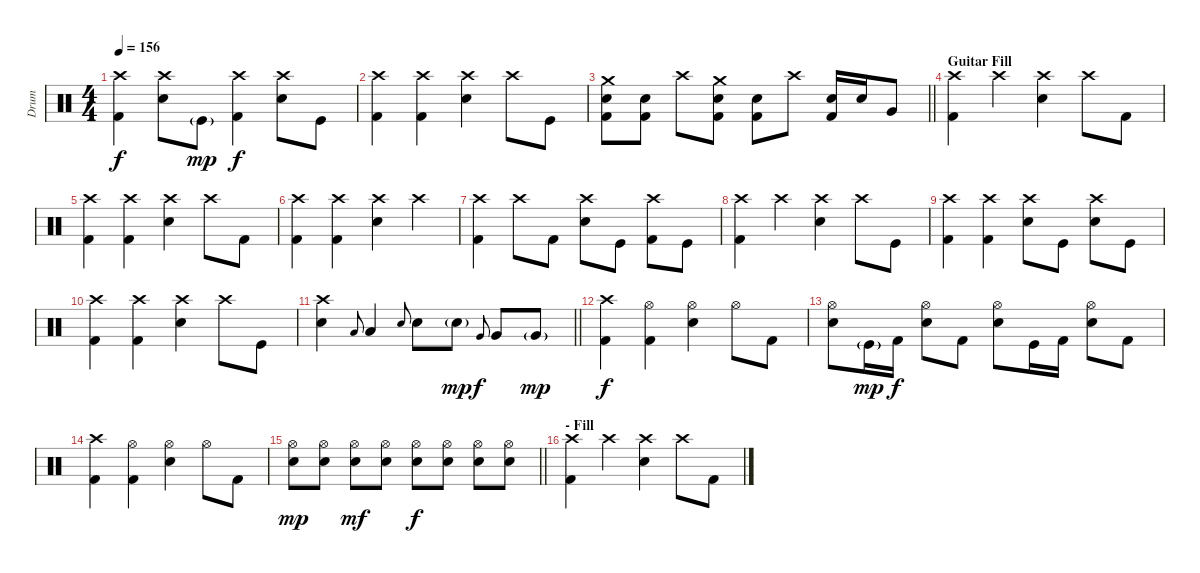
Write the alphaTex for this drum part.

\track ("Drum" "Drum") {instrument percussion}
\staff {score}
\articulation defaults
\ts (4 4)
\tempo 156
\clef neutral
\ks c
("Crash high (hit)" "Kick (hit) 2").4{dy f} ("Crash high (hit)" "Snare (hit) 2").8 "Kick (hit)"{g}.8{dy mp} ("Crash high (hit)" "Kick (hit) 2").4{dy f} ("Crash high (hit)" "Snare (hit) 2").8 "Kick (hit)".8 |
("Crash high (hit)" "Kick (hit) 2").4 ("Crash high (hit)" "Kick (hit) 2").4 ("Crash high (hit)" "Snare (hit) 2").4 "Crash high (hit)".8 "Kick (hit)".8 |
\barLineRight lightlight
("Crash medium (hit)" "Snare (hit) 2" "Kick (hit) 2").8 ("Snare (hit) 2" "Kick (hit) 2").8 "Crash high (hit)".8 ("Crash medium (hit)" "Snare (hit) 2" "Kick (hit) 2").8 ("Snare (hit) 2" "Kick (hit) 2").8 "Crash high (hit)".8 ("Snare (hit) 2" "Kick (hit) 2").16 "Snare (hit) 2".16 "Very Low Tom (hit)".8 |
\section ("" "Guitar Fill")
("Crash high (hit)" "Kick (hit) 2").4 "Crash high (hit)".4 ("Crash high (hit)" "Snare (hit) 2").4 "Crash high (hit)".8 "Kick (hit) 2".8 |
("Crash high (hit)" "Kick (hit) 2").4 ("Crash high (hit)" "Kick (hit) 2").4 ("Crash high (hit)" "Snare (hit) 2").4 "Crash high (hit)".8 "Kick (hit) 2".8 |
("Crash high (hit)" "Kick (hit) 2").4 ("Crash high (hit)" "Kick (hit) 2").4 ("Crash high (hit)" "Snare (hit) 2").4 "Crash high (hit)".4 |
("Crash high (hit)" "Kick (hit) 2").4 "Crash high (hit)".8 "Kick (hit) 2".8 ("Crash high (hit)" "Snare (hit) 2").8 "Kick (hit)".8 ("Crash high (hit)" "Kick (hit) 2").8 "Kick (hit)".8 |
("Crash high (hit)" "Kick (hit) 2").4 "Crash high (hit)".4 ("Crash high (hit)" "Snare (hit) 2").4 "Crash high (hit)".8 "Kick (hit)".8 |
("Crash high (hit)" "Kick (hit) 2").4 ("Crash high (hit)" "Kick (hit) 2").4 ("Crash high (hit)" "Snare (hit) 2").8 "Kick (hit)".8 ("Crash high (hit)" "Snare (hit) 2").8 "Kick (hit)".8 |
("Crash high (hit)" "Kick (hit) 2").4 ("Crash high (hit)" "Kick (hit) 2").4 ("Crash high (hit)" "Snare (hit) 2").4 "Crash high (hit)".8 "Kick (hit)".8 |
\barLineRight lightlight
("Crash high (hit)" "Snare (hit) 2").4 "Low Tom (hit)".8{gr onbeat} "Low Tom (hit)".4 "Snare (hit) 2".8{gr onbeat} "Snare (hit) 2".8 "Snare (hit) 2"{g}.8{dy mp} "Very Low Tom (hit)".8{gr onbeat dy f} "Very Low Tom (hit)".8 "Very Low Tom (hit)"{g}.8{dy mp} |
\section ("" "")
("Crash high (hit)" "Kick (hit) 2").4{dy f} ("Hi-Hat (open)" "Kick (hit) 2").4 ("Hi-Hat (open)" "Electric Snare (hit)").4 "Hi-Hat (open)".8 "Kick (hit) 2".8 |
("Hi-Hat (open)" "Electric Snare (hit)").8 "Kick (hit)"{g}.16{dy mp} "Kick (hit) 2".16{dy f} ("Hi-Hat (open)" "Electric Snare (hit)").8 "Kick (hit) 2".8 ("Hi-Hat (open)" "Electric Snare (hit)").8 "Kick (hit)".16 "Kick (hit) 2".16 ("Hi-Hat (open)" "Electric Snare (hit)").8 "Kick (hit) 2".8 |
("Crash high (hit)" "Kick (hit) 2").4 ("Hi-Hat (open)" "Kick (hit) 2").4 ("Hi-Hat (open)" "Electric Snare (hit)").4 "Hi-Hat (open)".8 "Kick (hit) 2".8 |
\barLineRight lightlight
("Hi-Hat (open)" "Electric Snare (hit)").8{dy mp} ("Hi-Hat (open)" "Electric Snare (hit)").8 ("Hi-Hat (open)" "Electric Snare (hit)").8{dy mf} ("Hi-Hat (open)" "Electric Snare (hit)").8 ("Hi-Hat (open)" "Electric Snare (hit)").8{dy f} ("Hi-Hat (open)" "Electric Snare (hit)").8 ("Hi-Hat (open)" "Electric Snare (hit)").8 ("Hi-Hat (open)" "Electric Snare (hit)").8 |
\section ("" "- Fill")
("Crash high (hit)" "Kick (hit) 2").4 "Crash high (hit)".4 ("Crash high (hit)" "Snare (hit) 2").4 "Crash high (hit)".8 "Kick (hit) 2".8
